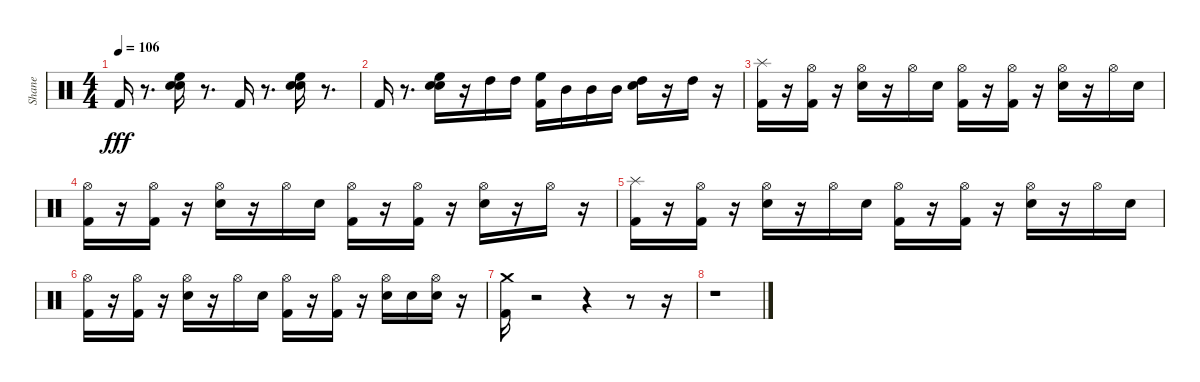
\track ("Shane" "Shane") {instrument percussion}
\staff {score}
\articulation defaults
\ts (4 4)
\tempo 106
\clef neutral
\ks c "Kick (hit) 2".16{dy fff}
r.8{d} ("Electric Snare (hit)" "Snare (hit) 2" "High Floor Tom (hit)").16 r.8{d} "Kick (hit) 2".16 r.8{d} ("Electric Snare (hit)" "Snare (hit) 2" "High Floor Tom (hit)").16 r.8{d} |
"Kick (hit) 2".16 r.8{d} ("Electric Snare (hit)" "Snare (hit) 2" "High Floor Tom (hit)").16 r.16 "High Tom (hit)".16 "High Tom (hit)".16 ("Kick (hit) 2" "High Floor Tom (hit)").16 "Mid Tom (hit)".16 "Mid Tom (hit)".16 "Mid Tom (hit)".16 ("High Tom (hit)" "Snare (hit) 2").16 r.16 "High Tom (hit)".16 r.16 |
("Kick (hit) 2" "Splash (hit)").16 r.16 ("Kick (hit) 2" "Hi-Hat (open)").16 r.16 ("Snare (hit) 2" "Hi-Hat (open)").16 r.16 "Hi-Hat (open)".16 "Snare (hit) 2".16 ("Kick (hit) 2" "Hi-Hat (open)").16 r.16 ("Kick (hit) 2" "Hi-Hat (open)").16 r.16 ("Snare (hit) 2" "Hi-Hat (open)").16 r.16 "Hi-Hat (open)".16 "Snare (hit) 2".16 |
("Kick (hit) 2" "Hi-Hat (open)").16 r.16 ("Kick (hit) 2" "Hi-Hat (open)").16 r.16 ("Snare (hit) 2" "Hi-Hat (open)").16 r.16 "Hi-Hat (open)".16 "Snare (hit) 2".16 ("Kick (hit) 2" "Hi-Hat (open)").16 r.16 ("Kick (hit) 2" "Hi-Hat (open)").16 r.16 ("Snare (hit) 2" "Hi-Hat (open)").16 r.16 "Hi-Hat (open)".16 r.16 |
("Kick (hit) 2" "Splash (hit)").16 r.16 ("Kick (hit) 2" "Hi-Hat (open)").16 r.16 ("Snare (hit) 2" "Hi-Hat (open)").16 r.16 "Hi-Hat (open)".16 "Snare (hit) 2".16 ("Kick (hit) 2" "Hi-Hat (open)").16 r.16 ("Kick (hit) 2" "Hi-Hat (open)").16 r.16 ("Snare (hit) 2" "Hi-Hat (open)").16 r.16 "Hi-Hat (open)".16 "Snare (hit) 2".16 |
("Kick (hit) 2" "Hi-Hat (open)").16 r.16 ("Kick (hit) 2" "Hi-Hat (open)").16 r.16 ("Snare (hit) 2" "Hi-Hat (open)").16 r.16 "Hi-Hat (open)".16 "Snare (hit) 2".16 ("Kick (hit) 2" "Hi-Hat (open)").16 r.16 ("Kick (hit) 2" "Hi-Hat (open)").16 r.16 ("Snare (hit) 2" "Hi-Hat (open)").16 "Snare (hit) 2".16 ("Hi-Hat (open)" "Snare (hit) 2").16 r.16 |
("Kick (hit) 2" "Crash medium (hit)").16 r.2 r.4 r.8 r.16 |
r.1
